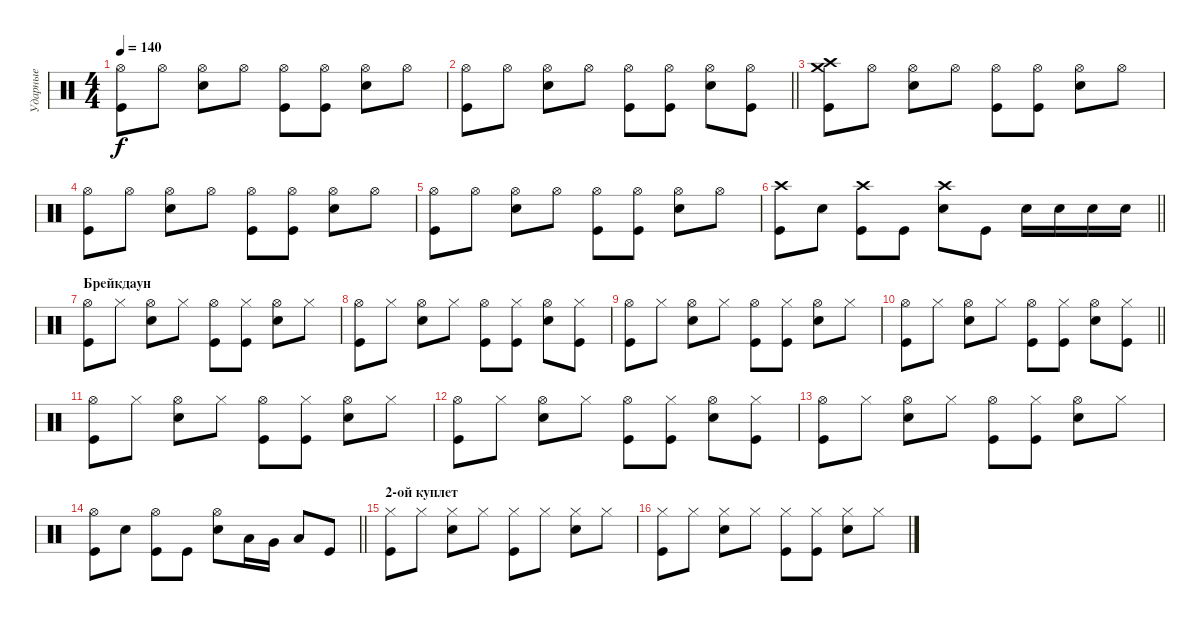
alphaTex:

\track ("Ударные" "Ударные") {instrument percussion}
\staff {score}
\articulation defaults
\ts (4 4)
\tempo 140
\clef neutral
\ks c
("Hi-Hat (open)" "Kick (hit)").8{dy f} "Hi-Hat (open)".8 ("Hi-Hat (open)" "Snare (hit) 2").8 "Hi-Hat (open)".8 ("Hi-Hat (open)" "Kick (hit)").8 ("Hi-Hat (open)" "Kick (hit)").8 ("Hi-Hat (open)" "Snare (hit) 2").8 "Hi-Hat (open)".8 |
\barLineRight lightlight
("Hi-Hat (open)" "Kick (hit)").8 "Hi-Hat (open)".8 ("Hi-Hat (open)" "Snare (hit) 2").8 "Hi-Hat (open)".8 ("Hi-Hat (open)" "Kick (hit)").8 ("Hi-Hat (open)" "Kick (hit)").8 ("Hi-Hat (open)" "Snare (hit) 2").8 ("Hi-Hat (open)" "Kick (hit)").8 |
("Crash medium (hit)" "Crash high (hit)" "Kick (hit)").8 "Hi-Hat (open)".8 ("Hi-Hat (open)" "Snare (hit) 2").8 "Hi-Hat (open)".8 ("Hi-Hat (open)" "Kick (hit)").8 ("Hi-Hat (open)" "Kick (hit)").8 ("Hi-Hat (open)" "Snare (hit) 2").8 "Hi-Hat (open)".8 |
("Hi-Hat (open)" "Kick (hit)").8 "Hi-Hat (open)".8 ("Hi-Hat (open)" "Snare (hit) 2").8 "Hi-Hat (open)".8 ("Hi-Hat (open)" "Kick (hit)").8 ("Hi-Hat (open)" "Kick (hit)").8 ("Hi-Hat (open)" "Snare (hit) 2").8 "Hi-Hat (open)".8 |
("Hi-Hat (open)" "Kick (hit)").8 "Hi-Hat (open)".8 ("Hi-Hat (open)" "Snare (hit) 2").8 "Hi-Hat (open)".8 ("Hi-Hat (open)" "Kick (hit)").8 ("Hi-Hat (open)" "Kick (hit)").8 ("Hi-Hat (open)" "Snare (hit) 2").8 "Hi-Hat (open)".8 |
\barLineRight lightlight
("Crash high (hit)" "Kick (hit)").8 "Snare (hit) 2".8 ("Crash high (hit)" "Kick (hit)").8 "Kick (hit)".8 ("Crash high (hit)" "Snare (hit) 2").8 "Kick (hit)".8 "Snare (hit) 2".16 "Snare (hit) 2".16 "Snare (hit) 2".16 "Snare (hit) 2".16 |
\section ("" "Брейкдаун")
("Hi-Hat (open)" "Kick (hit)").8 "Hi-Hat (closed)".8 ("Hi-Hat (open)" "Snare (hit) 2").8 "Hi-Hat (closed)".8 ("Hi-Hat (open)" "Kick (hit)").8 ("Hi-Hat (closed)" "Kick (hit)").8 ("Hi-Hat (open)" "Snare (hit) 2").8 "Hi-Hat (closed)".8 |
("Hi-Hat (open)" "Kick (hit)").8 "Hi-Hat (closed)".8 ("Hi-Hat (open)" "Snare (hit) 2").8 "Hi-Hat (closed)".8 ("Hi-Hat (open)" "Kick (hit)").8 ("Hi-Hat (closed)" "Kick (hit)").8 ("Hi-Hat (open)" "Snare (hit) 2").8 ("Hi-Hat (closed)" "Kick (hit)").8 |
("Hi-Hat (open)" "Kick (hit)").8 "Hi-Hat (closed)".8 ("Hi-Hat (open)" "Snare (hit) 2").8 "Hi-Hat (closed)".8 ("Hi-Hat (open)" "Kick (hit)").8 ("Hi-Hat (closed)" "Kick (hit)").8 ("Hi-Hat (open)" "Snare (hit) 2").8 "Hi-Hat (closed)".8 |
\barLineRight lightlight
("Hi-Hat (open)" "Kick (hit)").8 "Hi-Hat (closed)".8 ("Hi-Hat (open)" "Snare (hit) 2").8 "Hi-Hat (closed)".8 ("Hi-Hat (open)" "Kick (hit)").8 ("Hi-Hat (closed)" "Kick (hit)").8 ("Hi-Hat (open)" "Snare (hit) 2").8 ("Hi-Hat (closed)" "Kick (hit)").8 |
("Hi-Hat (open)" "Kick (hit)").8 "Hi-Hat (closed)".8 ("Hi-Hat (open)" "Snare (hit) 2").8 "Hi-Hat (closed)".8 ("Hi-Hat (open)" "Kick (hit)").8 ("Hi-Hat (closed)" "Kick (hit)").8 ("Hi-Hat (open)" "Snare (hit) 2").8 "Hi-Hat (closed)".8 |
("Hi-Hat (open)" "Kick (hit)").8 "Hi-Hat (closed)".8 ("Hi-Hat (open)" "Snare (hit) 2").8 "Hi-Hat (closed)".8 ("Hi-Hat (open)" "Kick (hit)").8 ("Hi-Hat (closed)" "Kick (hit)").8 ("Hi-Hat (open)" "Snare (hit) 2").8 ("Hi-Hat (closed)" "Kick (hit)").8 |
("Hi-Hat (open)" "Kick (hit)").8 "Hi-Hat (closed)".8 ("Hi-Hat (open)" "Snare (hit) 2").8 "Hi-Hat (closed)".8 ("Hi-Hat (open)" "Kick (hit)").8 ("Hi-Hat (closed)" "Kick (hit)").8 ("Hi-Hat (open)" "Snare (hit) 2").8 "Hi-Hat (closed)".8 |
\barLineRight lightlight
("Hi-Hat (open)" "Kick (hit)").8 "Snare (hit) 2".8 ("Hi-Hat (open)" "Kick (hit)").8 "Kick (hit)".8 ("Hi-Hat (open)" "Snare (hit) 2").8 "Low Tom (hit)".16 "Very Low Tom (hit)".16 "Low Floor Tom (hit)".8 "Kick (hit)".8 |
\section ("" "2-ой куплет")
("Hi-Hat (closed)" "Kick (hit)").8 "Hi-Hat (closed)".8 ("Hi-Hat (closed)" "Snare (hit) 2").8 "Hi-Hat (closed)".8 ("Hi-Hat (closed)" "Kick (hit)").8 "Hi-Hat (closed)".8 ("Hi-Hat (closed)" "Snare (hit) 2").8 "Hi-Hat (closed)".8 |
("Hi-Hat (closed)" "Kick (hit)").8 "Hi-Hat (closed)".8 ("Hi-Hat (closed)" "Snare (hit) 2").8 "Hi-Hat (closed)".8 ("Hi-Hat (closed)" "Kick (hit)").8 ("Hi-Hat (closed)" "Kick (hit)").8 ("Hi-Hat (closed)" "Snare (hit) 2").8 "Hi-Hat (closed)".8
